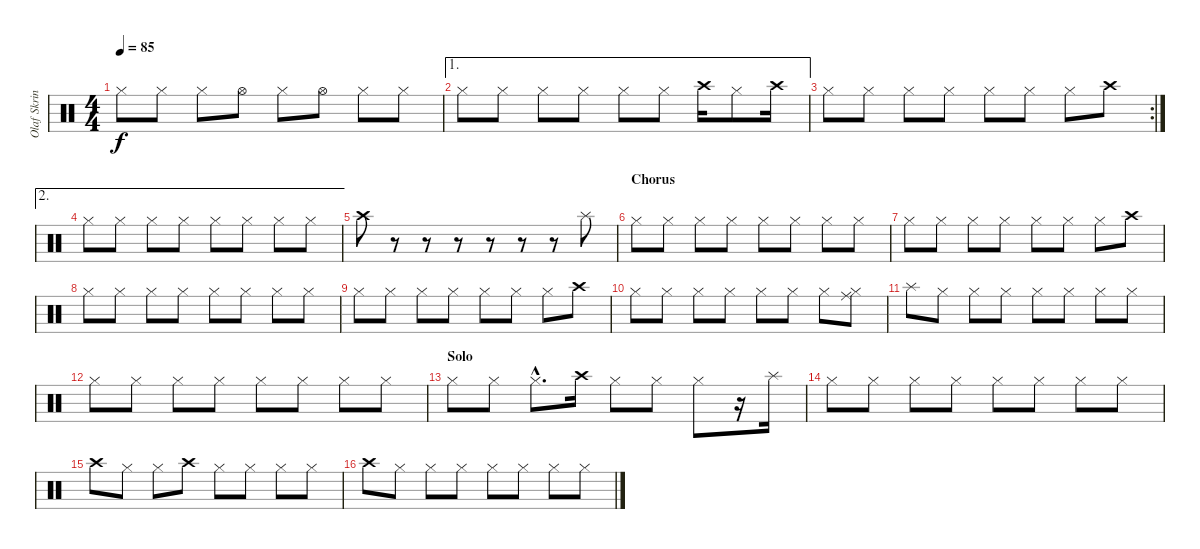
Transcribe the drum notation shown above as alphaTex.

\track ("Olaf Skrinde (Drums)" "Olaf Skrin") {instrument percussion}
\staff {score}
\articulation defaults
\ts (4 4)
\tempo 85
\clef neutral
\ks c "Hi-Hat (closed)".8{dy f} "Hi-Hat (closed)".8 "Hi-Hat (closed)".8 "Hi-Hat (open)".8 "Hi-Hat (closed)".8 "Hi-Hat (open)".8 "Hi-Hat (closed)".8 "Hi-Hat (closed)".8
|
\ae 1 "Hi-Hat (closed)".8 "Hi-Hat (closed)".8 "Hi-Hat (closed)".8 "Hi-Hat (closed)".8 "Hi-Hat (closed)".8 "Hi-Hat (closed)".8 "Crash high (hit)".16 "Hi-Hat (closed)".8 "Crash high (hit)".16
|
\rc 2 "Hi-Hat (closed)".8 "Hi-Hat (closed)".8 "Hi-Hat (closed)".8 "Hi-Hat (closed)".8 "Hi-Hat (closed)".8 "Hi-Hat (closed)".8 "Hi-Hat (closed)".8 "Crash high (hit)".8
|
\ae 2 "Hi-Hat (closed)".8 "Hi-Hat (closed)".8 "Hi-Hat (closed)".8 "Hi-Hat (closed)".8 "Hi-Hat (closed)".8 "Hi-Hat (closed)".8 "Hi-Hat (closed)".8 "Hi-Hat (closed)".8
|
"Crash high (hit)".8 r.8 r.8 r.8 r.8 r.8 r.8 "Splash (hit)".8 |
\section ("" "Chorus")
"Hi-Hat (closed)".8 "Hi-Hat (closed)".8 "Hi-Hat (closed)".8 "Hi-Hat (closed)".8 "Hi-Hat (closed)".8 "Hi-Hat (closed)".8 "Hi-Hat (closed)".8 "Hi-Hat (closed)".8 |
"Hi-Hat (closed)".8 "Hi-Hat (closed)".8 "Hi-Hat (closed)".8 "Hi-Hat (closed)".8 "Hi-Hat (closed)".8 "Hi-Hat (closed)".8 "Hi-Hat (closed)".8 "Crash high (hit)".8 |
"Hi-Hat (closed)".8 "Hi-Hat (closed)".8 "Hi-Hat (closed)".8 "Hi-Hat (closed)".8 "Hi-Hat (closed)".8 "Hi-Hat (closed)".8 "Hi-Hat (closed)".8 "Hi-Hat (closed)".8 |
"Hi-Hat (closed)".8 "Hi-Hat (closed)".8 "Hi-Hat (closed)".8 "Hi-Hat (closed)".8 "Hi-Hat (closed)".8 "Hi-Hat (closed)".8 "Hi-Hat (closed)".8 "Crash high (hit)".8 |
"Hi-Hat (closed)".8 "Hi-Hat (closed)".8 "Hi-Hat (closed)".8 "Hi-Hat (closed)".8 "Hi-Hat (closed)".8 "Hi-Hat (closed)".8 "Hi-Hat (closed)".8 ("Ride (middle)" "Hi-Hat (closed)").8 |
"Splash (hit)".8 "Hi-Hat (closed)".8 "Hi-Hat (closed)".8 "Hi-Hat (closed)".8 "Hi-Hat (closed)".8 "Hi-Hat (closed)".8 "Hi-Hat (closed)".8 "Hi-Hat (closed)".8 |
"Hi-Hat (closed)".8 "Hi-Hat (closed)".8 "Hi-Hat (closed)".8 "Hi-Hat (closed)".8 "Hi-Hat (closed)".8 "Hi-Hat (closed)".8 "Hi-Hat (closed)".8 "Hi-Hat (closed)".8 |
\section ("" "Solo")
"Hi-Hat (closed)".8 "Hi-Hat (closed)".8 "Hi-Hat (closed)"{hac}.8{d} "Crash high (hit)".16 "Hi-Hat (closed)".8 "Hi-Hat (closed)".8 "Hi-Hat (closed)".8 r.16 "Splash (hit)".16 |
"Hi-Hat (closed)".8 "Hi-Hat (closed)".8 "Hi-Hat (closed)".8 "Hi-Hat (closed)".8 "Hi-Hat (closed)".8 "Hi-Hat (closed)".8 "Hi-Hat (closed)".8 "Hi-Hat (closed)".8 |
"Crash high (hit)".8 "Hi-Hat (closed)".8 "Hi-Hat (closed)".8 "Crash high (hit)".8 "Hi-Hat (closed)".8 "Hi-Hat (closed)".8 "Hi-Hat (closed)".8 "Hi-Hat (closed)".8 |
"Crash high (hit)".8 "Hi-Hat (closed)".8 "Hi-Hat (closed)".8 "Hi-Hat (closed)".8 "Hi-Hat (closed)".8 "Hi-Hat (closed)".8 "Hi-Hat (closed)".8 "Hi-Hat (closed)".8
